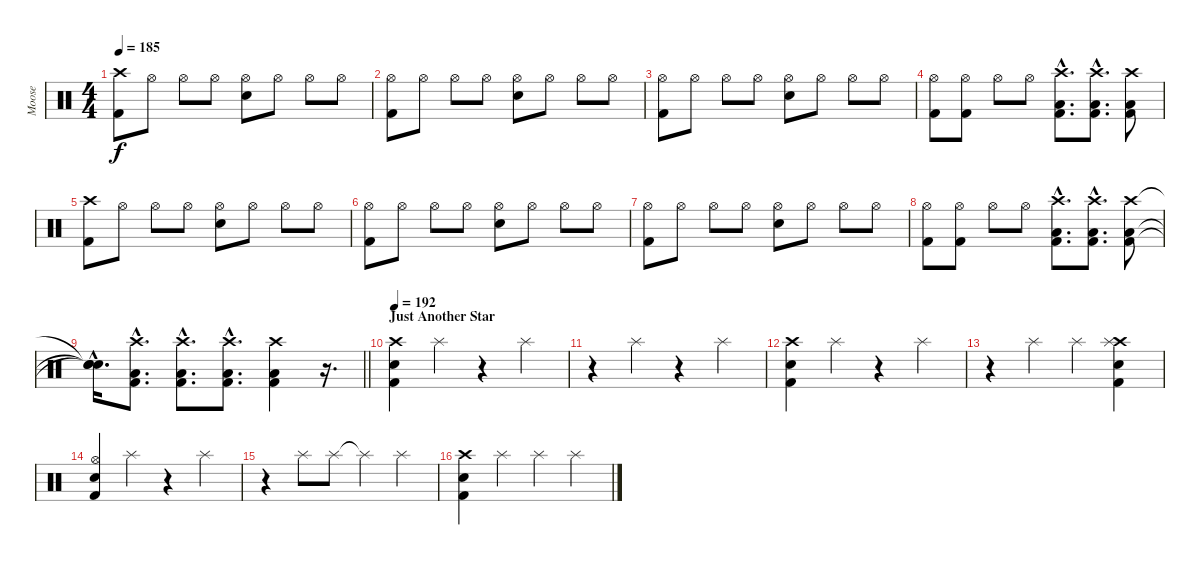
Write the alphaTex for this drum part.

\track ("Moose" "Moose") {instrument percussion}
\staff {score}
\articulation defaults
\ts (4 4)
\tempo 185
\clef neutral
\ks c
("Crash high (hit)" "Kick (hit) 2").8{dy f} "Hi-Hat (open)".8 "Hi-Hat (open)".8 "Hi-Hat (open)".8 ("Hi-Hat (open)" "Snare (hit) 2").8 "Hi-Hat (open)".8 "Hi-Hat (open)".8 "Hi-Hat (open)".8 |
("Hi-Hat (open)" "Kick (hit) 2").8 "Hi-Hat (open)".8 "Hi-Hat (open)".8 "Hi-Hat (open)".8 ("Hi-Hat (open)" "Snare (hit) 2").8 "Hi-Hat (open)".8 "Hi-Hat (open)".8 "Hi-Hat (open)".8 |
("Hi-Hat (open)" "Kick (hit) 2").8 "Hi-Hat (open)".8 "Hi-Hat (open)".8 "Hi-Hat (open)".8 ("Hi-Hat (open)" "Snare (hit) 2").8 "Hi-Hat (open)".8 "Hi-Hat (open)".8 "Hi-Hat (open)".8 |
("Hi-Hat (open)" "Kick (hit) 2").8 ("Hi-Hat (open)" "Kick (hit) 2").8 "Hi-Hat (open)".8 "Hi-Hat (open)".8 ("Crash high (hit)"{hac} "Low Tom (hit)"{hac} "Kick (hit) 2"{hac}).8{d} ("Crash high (hit)"{hac} "Low Tom (hit)"{hac} "Kick (hit) 2"{hac}).8{d} ("Crash high (hit)" "Low Tom (hit)" "Kick (hit) 2").8 |
("Crash high (hit)" "Kick (hit) 2").8 "Hi-Hat (open)".8 "Hi-Hat (open)".8 "Hi-Hat (open)".8 ("Hi-Hat (open)" "Snare (hit) 2").8 "Hi-Hat (open)".8 "Hi-Hat (open)".8 "Hi-Hat (open)".8 |
("Hi-Hat (open)" "Kick (hit) 2").8 "Hi-Hat (open)".8 "Hi-Hat (open)".8 "Hi-Hat (open)".8 ("Hi-Hat (open)" "Snare (hit) 2").8 "Hi-Hat (open)".8 "Hi-Hat (open)".8 "Hi-Hat (open)".8 |
("Hi-Hat (open)" "Kick (hit) 2").8 "Hi-Hat (open)".8 "Hi-Hat (open)".8 "Hi-Hat (open)".8 ("Hi-Hat (open)" "Snare (hit) 2").8 "Hi-Hat (open)".8 "Hi-Hat (open)".8 "Hi-Hat (open)".8 |
("Hi-Hat (open)" "Kick (hit) 2").8 ("Hi-Hat (open)" "Kick (hit) 2").8 "Hi-Hat (open)".8 "Hi-Hat (open)".8 ("Crash high (hit)"{hac} "Low Tom (hit)"{hac} "Kick (hit) 2"{hac}).8{d} ("Crash high (hit)"{hac} "Low Tom (hit)"{hac} "Kick (hit) 2"{hac}).8{d} ("Crash high (hit)" "Low Tom (hit)" "Kick (hit) 2").8 |
\barLineRight lightlight
("Snare (hit)"{hac t} "Snare (hit)"{hac t} "Snare (hit)"{hac t}).16{d} ("Crash high (hit)"{hac} "Low Tom (hit)"{hac} "Kick (hit) 2"{hac}).8{d} ("Crash high (hit)"{hac} "Low Tom (hit)"{hac} "Kick (hit) 2"{hac}).8{d} ("Crash high (hit)"{hac} "Low Tom (hit)"{hac} "Kick (hit) 2"{hac}).8{d} ("Crash high (hit)" "Low Tom (hit)" "Kick (hit) 2").4 r.16{d} |
\section ("" "Just Another Star")
\tempo 192
("Kick (hit) 2" "Snare (hit) 2" "Crash high (hit)").4{volume 11} "Splash (hit)".4 r.4 "Splash (hit)".4 |
r.4 "Splash (hit)".4 r.4 "Splash (hit)".4 |
("Kick (hit) 2" "Snare (hit) 2" "Crash high (hit)").4 "Splash (hit)".4 r.4 "Splash (hit)".4 |
r.4 "Splash (hit)".4 "Splash (hit)".4 ("Kick (hit) 2" "Snare (hit) 2" "Crash high (hit)" "Splash (hit)").4 |
("Kick (hit) 2" "Snare (hit) 2" "Hi-Hat (open)").4 "Splash (hit)".4 r.4 "Splash (hit)".4 |
r.4 "Splash (hit)".8 "Splash (hit)".8 "Splash (hit)"{t}.4 "Splash (hit)".4 |
("Kick (hit) 2" "Snare (hit) 2" "Crash high (hit)").4 "Splash (hit)".4 "Splash (hit)".4 "Splash (hit)".4
